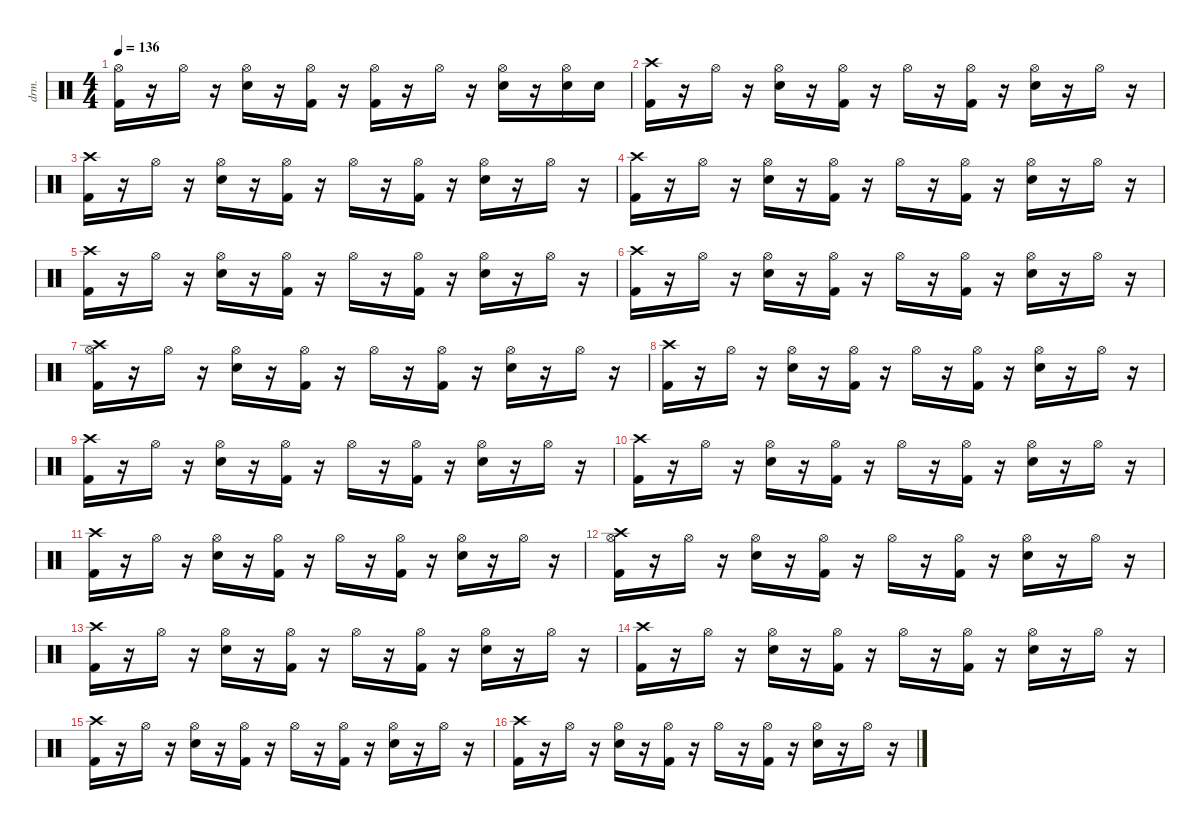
\defaultSystemsLayout 4
\hideDynamics
\bracketExtendMode nobrackets
\otherSystemsTrackNameOrientation horizontal
\track ("Drums" "drm.") {instrument percussion}
\staff {score}
\articulation defaults
\ts (4 4)
\tempo 136
\clef neutral
\ks c
("Kick (hit) 2" "Hi-Hat (open)").16{dy f} r.16 "Hi-Hat (open)".16 r.16 ("Snare (hit) 2" "Hi-Hat (open)").16 r.16 ("Kick (hit) 2" "Hi-Hat (open)").16 r.16 ("Kick (hit) 2" "Hi-Hat (open)").16 r.16 "Hi-Hat (open)".16 r.16 ("Snare (hit) 2" "Hi-Hat (open)").16 r.16 ("Snare (hit) 2" "Hi-Hat (open)").16 "Snare (hit) 2".16 |
("Kick (hit) 2" "Crash high (hit)").16 r.16 "Hi-Hat (open)".16 r.16 ("Snare (hit) 2" "Hi-Hat (open)").16 r.16 ("Kick (hit) 2" "Hi-Hat (open)").16 r.16 "Hi-Hat (open)".16 r.16 ("Kick (hit) 2" "Hi-Hat (open)").16 r.16 ("Snare (hit) 2" "Hi-Hat (open)").16 r.16 "Hi-Hat (open)".16 r.16 |
("Kick (hit) 2" "Crash high (hit)").16 r.16 "Hi-Hat (open)".16 r.16 ("Snare (hit) 2" "Hi-Hat (open)").16 r.16 ("Kick (hit) 2" "Hi-Hat (open)").16 r.16 "Hi-Hat (open)".16 r.16 ("Kick (hit) 2" "Hi-Hat (open)").16 r.16 ("Snare (hit) 2" "Hi-Hat (open)").16 r.16 "Hi-Hat (open)".16 r.16 |
("Kick (hit) 2" "Crash high (hit)").16 r.16 "Hi-Hat (open)".16 r.16 ("Snare (hit) 2" "Hi-Hat (open)").16 r.16 ("Kick (hit) 2" "Hi-Hat (open)").16 r.16 "Hi-Hat (open)".16 r.16 ("Kick (hit) 2" "Hi-Hat (open)").16 r.16 ("Snare (hit) 2" "Hi-Hat (open)").16 r.16 "Hi-Hat (open)".16 r.16 |
("Kick (hit) 2" "Crash high (hit)").16 r.16 "Hi-Hat (open)".16 r.16 ("Snare (hit) 2" "Hi-Hat (open)").16 r.16 ("Kick (hit) 2" "Hi-Hat (open)").16 r.16 "Hi-Hat (open)".16 r.16 ("Kick (hit) 2" "Hi-Hat (open)").16 r.16 ("Snare (hit) 2" "Hi-Hat (open)").16 r.16 "Hi-Hat (open)".16 r.16 |
("Kick (hit) 2" "Crash high (hit)").16 r.16 "Hi-Hat (open)".16 r.16 ("Snare (hit) 2" "Hi-Hat (open)").16 r.16 ("Kick (hit) 2" "Hi-Hat (open)").16 r.16 "Hi-Hat (open)".16 r.16 ("Kick (hit) 2" "Hi-Hat (open)").16 r.16 ("Snare (hit) 2" "Hi-Hat (open)").16 r.16 "Hi-Hat (open)".16 r.16 |
("Kick (hit) 2" "Hi-Hat (open)" "Crash high (hit)").16 r.16 "Hi-Hat (open)".16 r.16 ("Snare (hit) 2" "Hi-Hat (open)").16 r.16 ("Kick (hit) 2" "Hi-Hat (open)").16 r.16 "Hi-Hat (open)".16 r.16 ("Kick (hit) 2" "Hi-Hat (open)").16 r.16 ("Snare (hit) 2" "Hi-Hat (open)").16 r.16 "Hi-Hat (open)".16 r.16 |
("Kick (hit) 2" "Crash high (hit)").16 r.16 "Hi-Hat (open)".16 r.16 ("Snare (hit) 2" "Hi-Hat (open)").16 r.16 ("Kick (hit) 2" "Hi-Hat (open)").16 r.16 "Hi-Hat (open)".16 r.16 ("Kick (hit) 2" "Hi-Hat (open)").16 r.16 ("Snare (hit) 2" "Hi-Hat (open)").16 r.16 "Hi-Hat (open)".16 r.16 |
("Kick (hit) 2" "Crash high (hit)").16 r.16 "Hi-Hat (open)".16 r.16 ("Snare (hit) 2" "Hi-Hat (open)").16 r.16 ("Kick (hit) 2" "Hi-Hat (open)").16 r.16 "Hi-Hat (open)".16 r.16 ("Kick (hit) 2" "Hi-Hat (open)").16 r.16 ("Snare (hit) 2" "Hi-Hat (open)").16 r.16 "Hi-Hat (open)".16 r.16 |
("Kick (hit) 2" "Crash high (hit)").16 r.16 "Hi-Hat (open)".16 r.16 ("Snare (hit) 2" "Hi-Hat (open)").16 r.16 ("Kick (hit) 2" "Hi-Hat (open)").16 r.16 "Hi-Hat (open)".16 r.16 ("Kick (hit) 2" "Hi-Hat (open)").16 r.16 ("Snare (hit) 2" "Hi-Hat (open)").16 r.16 "Hi-Hat (open)".16 r.16 |
("Kick (hit) 2" "Crash high (hit)").16 r.16 "Hi-Hat (open)".16 r.16 ("Snare (hit) 2" "Hi-Hat (open)").16 r.16 ("Kick (hit) 2" "Hi-Hat (open)").16 r.16 "Hi-Hat (open)".16 r.16 ("Kick (hit) 2" "Hi-Hat (open)").16 r.16 ("Snare (hit) 2" "Hi-Hat (open)").16 r.16 "Hi-Hat (open)".16 r.16 |
("Kick (hit) 2" "Hi-Hat (open)" "Crash high (hit)").16 r.16 "Hi-Hat (open)".16 r.16 ("Snare (hit) 2" "Hi-Hat (open)").16 r.16 ("Kick (hit) 2" "Hi-Hat (open)").16 r.16 "Hi-Hat (open)".16 r.16 ("Kick (hit) 2" "Hi-Hat (open)").16 r.16 ("Snare (hit) 2" "Hi-Hat (open)").16 r.16 "Hi-Hat (open)".16 r.16 |
("Kick (hit) 2" "Crash high (hit)").16 r.16 "Hi-Hat (open)".16 r.16 ("Snare (hit) 2" "Hi-Hat (open)").16 r.16 ("Kick (hit) 2" "Hi-Hat (open)").16 r.16 "Hi-Hat (open)".16 r.16 ("Kick (hit) 2" "Hi-Hat (open)").16 r.16 ("Snare (hit) 2" "Hi-Hat (open)").16 r.16 "Hi-Hat (open)".16 r.16 |
("Kick (hit) 2" "Crash high (hit)").16 r.16 "Hi-Hat (open)".16 r.16 ("Snare (hit) 2" "Hi-Hat (open)").16 r.16 ("Kick (hit) 2" "Hi-Hat (open)").16 r.16 "Hi-Hat (open)".16 r.16 ("Kick (hit) 2" "Hi-Hat (open)").16 r.16 ("Snare (hit) 2" "Hi-Hat (open)").16 r.16 "Hi-Hat (open)".16 r.16 |
("Kick (hit) 2" "Crash high (hit)").16 r.16 "Hi-Hat (open)".16 r.16 ("Snare (hit) 2" "Hi-Hat (open)").16 r.16 ("Kick (hit) 2" "Hi-Hat (open)").16 r.16 "Hi-Hat (open)".16 r.16 ("Kick (hit) 2" "Hi-Hat (open)").16 r.16 ("Snare (hit) 2" "Hi-Hat (open)").16 r.16 "Hi-Hat (open)".16 r.16 |
("Kick (hit) 2" "Crash high (hit)").16 r.16 "Hi-Hat (open)".16 r.16 ("Snare (hit) 2" "Hi-Hat (open)").16 r.16 ("Kick (hit) 2" "Hi-Hat (open)").16 r.16 "Hi-Hat (open)".16 r.16 ("Kick (hit) 2" "Hi-Hat (open)").16 r.16 ("Snare (hit) 2" "Hi-Hat (open)").16 r.16 "Hi-Hat (open)".16 r.16
